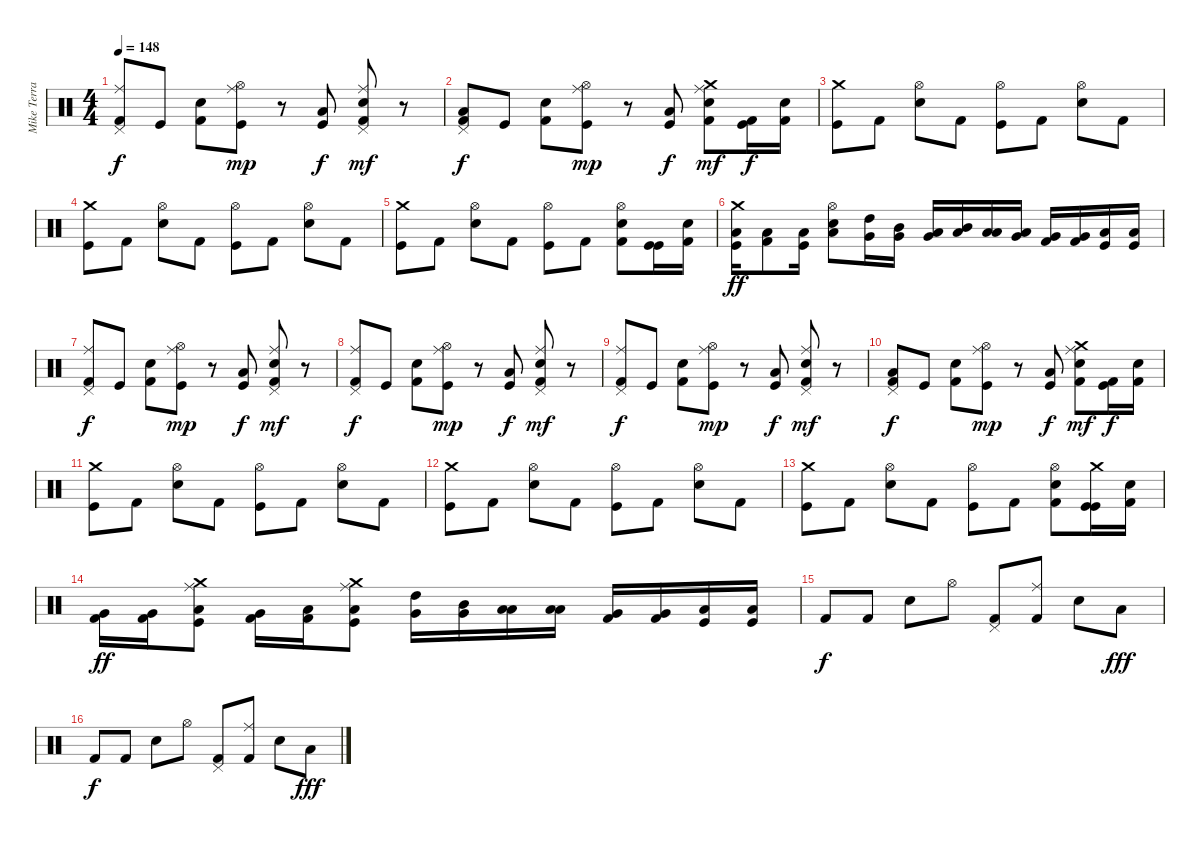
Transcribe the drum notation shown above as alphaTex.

\track ("Mike Terrana" "Mike Terra") {instrument percussion}
\staff {score}
\articulation defaults
\ts (4 4)
\tempo 148
\clef neutral
\ks c
("Pedal Hi-Hat (hit)" "Ride (middle)" "Kick (hit) 2").8{dy f} "Kick (hit)".8 ("Kick (hit) 2" "Snare (hit) 2").8 ("Hi-Hat (open)" "Ride (middle)" "Kick (hit)").8{dy mp} r.8 ("Kick (hit)" "Low Floor Tom (hit)").8{dy f} ("Pedal Hi-Hat (hit)" "Ride (middle)" "Kick (hit) 2" "Snare (hit) 2").8{dy mf} r.8 |
("Pedal Hi-Hat (hit)" "Low Floor Tom (hit)" "Kick (hit) 2").8{dy f} "Kick (hit)".8 ("Kick (hit) 2" "Snare (hit) 2").8 ("Hi-Hat (open)" "Ride (middle)" "Kick (hit)").8{dy mp} r.8 ("Kick (hit)" "Low Floor Tom (hit)").8{dy f} ("Crash medium (hit)" "Ride (middle)" "Kick (hit) 2" "Snare (hit) 2").8{dy mf} ("Kick (hit) 2" "Kick (hit)").16{dy f} ("Kick (hit) 2" "Snare (hit) 2").16 |
("Crash medium (hit)" "Kick (hit)").8 "Kick (hit) 2".8 ("Hi-Hat (open)" "Snare (hit) 2").8 "Kick (hit) 2".8 ("Hi-Hat (open)" "Kick (hit)").8 "Kick (hit) 2".8 ("Hi-Hat (open)" "Snare (hit) 2").8 "Kick (hit) 2".8 |
("Crash medium (hit)" "Kick (hit)").8 "Kick (hit) 2".8 ("Hi-Hat (open)" "Snare (hit) 2").8 "Kick (hit) 2".8 ("Hi-Hat (open)" "Kick (hit)").8 "Kick (hit) 2".8 ("Hi-Hat (open)" "Snare (hit) 2").8 "Kick (hit) 2".8 |
("Crash medium (hit)" "Kick (hit)").8 "Kick (hit) 2".8 ("Hi-Hat (open)" "Snare (hit) 2").8 "Kick (hit) 2".8 ("Hi-Hat (open)" "Kick (hit)").8 "Kick (hit) 2".8 ("Hi-Hat (open)" "Kick (hit) 2" "Snare (hit) 2").8 ("Kick (hit)" "Kick (hit)").16 ("Kick (hit) 2" "Snare (hit) 2").16 |
("Crash medium (hit)" "Low Floor Tom (hit)" "Kick (hit)").16{dy ff} ("Low Floor Tom (hit)" "Kick (hit) 2").8 ("Low Floor Tom (hit)" "Kick (hit)").16 ("Hi-Hat (open)" "Low Floor Tom (hit)" "Snare (hit) 2").8 ("High Tom (hit)" "Very Low Tom (hit)").16 ("Mid Tom (hit)" "Very Low Tom (hit)").16 ("Low Tom (hit)" "Very Low Tom (hit)").16 ("Mid Tom (hit)" "Low Floor Tom (hit)").16 ("Low Tom (hit)" "Low Floor Tom (hit)").16 ("Very Low Tom (hit)" "Low Floor Tom (hit)").16 ("Very Low Tom (hit)" "Kick (hit) 2").16 ("Very Low Tom (hit)" "Kick (hit) 2").16 ("Low Floor Tom (hit)" "Kick (hit)").16 ("Low Floor Tom (hit)" "Kick (hit)").16 |
("Pedal Hi-Hat (hit)" "Ride (middle)" "Kick (hit) 2").8{dy f} "Kick (hit)".8 ("Kick (hit) 2" "Snare (hit) 2").8 ("Hi-Hat (open)" "Ride (middle)" "Kick (hit)").8{dy mp} r.8 ("Kick (hit)" "Low Floor Tom (hit)").8{dy f} ("Pedal Hi-Hat (hit)" "Ride (middle)" "Kick (hit) 2" "Snare (hit) 2").8{dy mf} r.8 |
("Pedal Hi-Hat (hit)" "Ride (middle)" "Kick (hit) 2").8{dy f} "Kick (hit)".8 ("Kick (hit) 2" "Snare (hit) 2").8 ("Hi-Hat (open)" "Ride (middle)" "Kick (hit)").8{dy mp} r.8 ("Kick (hit)" "Low Floor Tom (hit)").8{dy f} ("Pedal Hi-Hat (hit)" "Ride (middle)" "Kick (hit) 2" "Snare (hit) 2").8{dy mf} r.8 |
("Pedal Hi-Hat (hit)" "Ride (middle)" "Kick (hit) 2").8{dy f} "Kick (hit)".8 ("Kick (hit) 2" "Snare (hit) 2").8 ("Hi-Hat (open)" "Ride (middle)" "Kick (hit)").8{dy mp} r.8 ("Kick (hit)" "Low Floor Tom (hit)").8{dy f} ("Pedal Hi-Hat (hit)" "Ride (middle)" "Kick (hit) 2" "Snare (hit) 2").8{dy mf} r.8 |
("Pedal Hi-Hat (hit)" "Low Floor Tom (hit)" "Kick (hit) 2").8{dy f} "Kick (hit)".8 ("Kick (hit) 2" "Snare (hit) 2").8 ("Hi-Hat (open)" "Ride (middle)" "Kick (hit)").8{dy mp} r.8 ("Kick (hit)" "Low Floor Tom (hit)").8{dy f} ("Crash medium (hit)" "Ride (middle)" "Kick (hit) 2" "Snare (hit) 2").8{dy mf} ("Kick (hit) 2" "Kick (hit)").16{dy f} ("Kick (hit) 2" "Snare (hit) 2").16 |
("Crash medium (hit)" "Kick (hit)").8 "Kick (hit) 2".8 ("Hi-Hat (open)" "Snare (hit) 2").8 "Kick (hit) 2".8 ("Hi-Hat (open)" "Kick (hit)").8 "Kick (hit) 2".8 ("Hi-Hat (open)" "Snare (hit) 2").8 "Kick (hit) 2".8 |
("Crash medium (hit)" "Kick (hit)").8 "Kick (hit) 2".8 ("Hi-Hat (open)" "Snare (hit) 2").8 "Kick (hit) 2".8 ("Hi-Hat (open)" "Kick (hit)").8 "Kick (hit) 2".8 ("Hi-Hat (open)" "Snare (hit) 2").8 "Kick (hit) 2".8 |
("Crash medium (hit)" "Kick (hit)").8 "Kick (hit) 2".8 ("Hi-Hat (open)" "Snare (hit) 2").8 "Kick (hit) 2".8 ("Hi-Hat (open)" "Kick (hit)").8 "Kick (hit) 2".8 ("Hi-Hat (open)" "Kick (hit) 2" "Snare (hit) 2").8 ("Crash medium (hit)" "Kick (hit)" "Kick (hit)").16 ("Kick (hit) 2" "Snare (hit) 2").16 |
("Very Low Tom (hit)" "Kick (hit) 2").16{dy ff} ("Very Low Tom (hit)" "Kick (hit) 2").16 ("Crash medium (hit)" "Ride (middle)" "Low Floor Tom (hit)" "Kick (hit)").8 ("Very Low Tom (hit)" "Kick (hit) 2").16 ("Low Floor Tom (hit)" "Kick (hit) 2").16 ("Crash medium (hit)" "Ride (middle)" "Low Floor Tom (hit)" "Kick (hit)").8 ("High Tom (hit)" "Very Low Tom (hit)").16 ("Mid Tom (hit)" "Very Low Tom (hit)").16 ("Low Tom (hit)" "Low Floor Tom (hit)").16 ("Low Tom (hit)" "Low Floor Tom (hit)").16 ("Very Low Tom (hit)" "Kick (hit) 2").16 ("Very Low Tom (hit)" "Kick (hit) 2").16 ("Low Floor Tom (hit)" "Kick (hit)").16 ("Low Floor Tom (hit)" "Kick (hit)").16 |
"Kick (hit) 2".8{dy f} "Kick (hit) 2".8 "Snare (hit) 2".8 "Hi-Hat (open)".8 ("Pedal Hi-Hat (hit)" "Kick (hit) 2").8 ("Ride (middle)" "Kick (hit) 2").8 "Snare (hit) 2".8 "Low Floor Tom (hit)".8{dy fff} |
"Kick (hit) 2".8{dy f} "Kick (hit) 2".8 "Snare (hit) 2".8 "Hi-Hat (open)".8 ("Pedal Hi-Hat (hit)" "Kick (hit) 2").8 ("Ride (middle)" "Kick (hit) 2").8 "Snare (hit) 2".8 "Low Floor Tom (hit)".8{dy fff}
